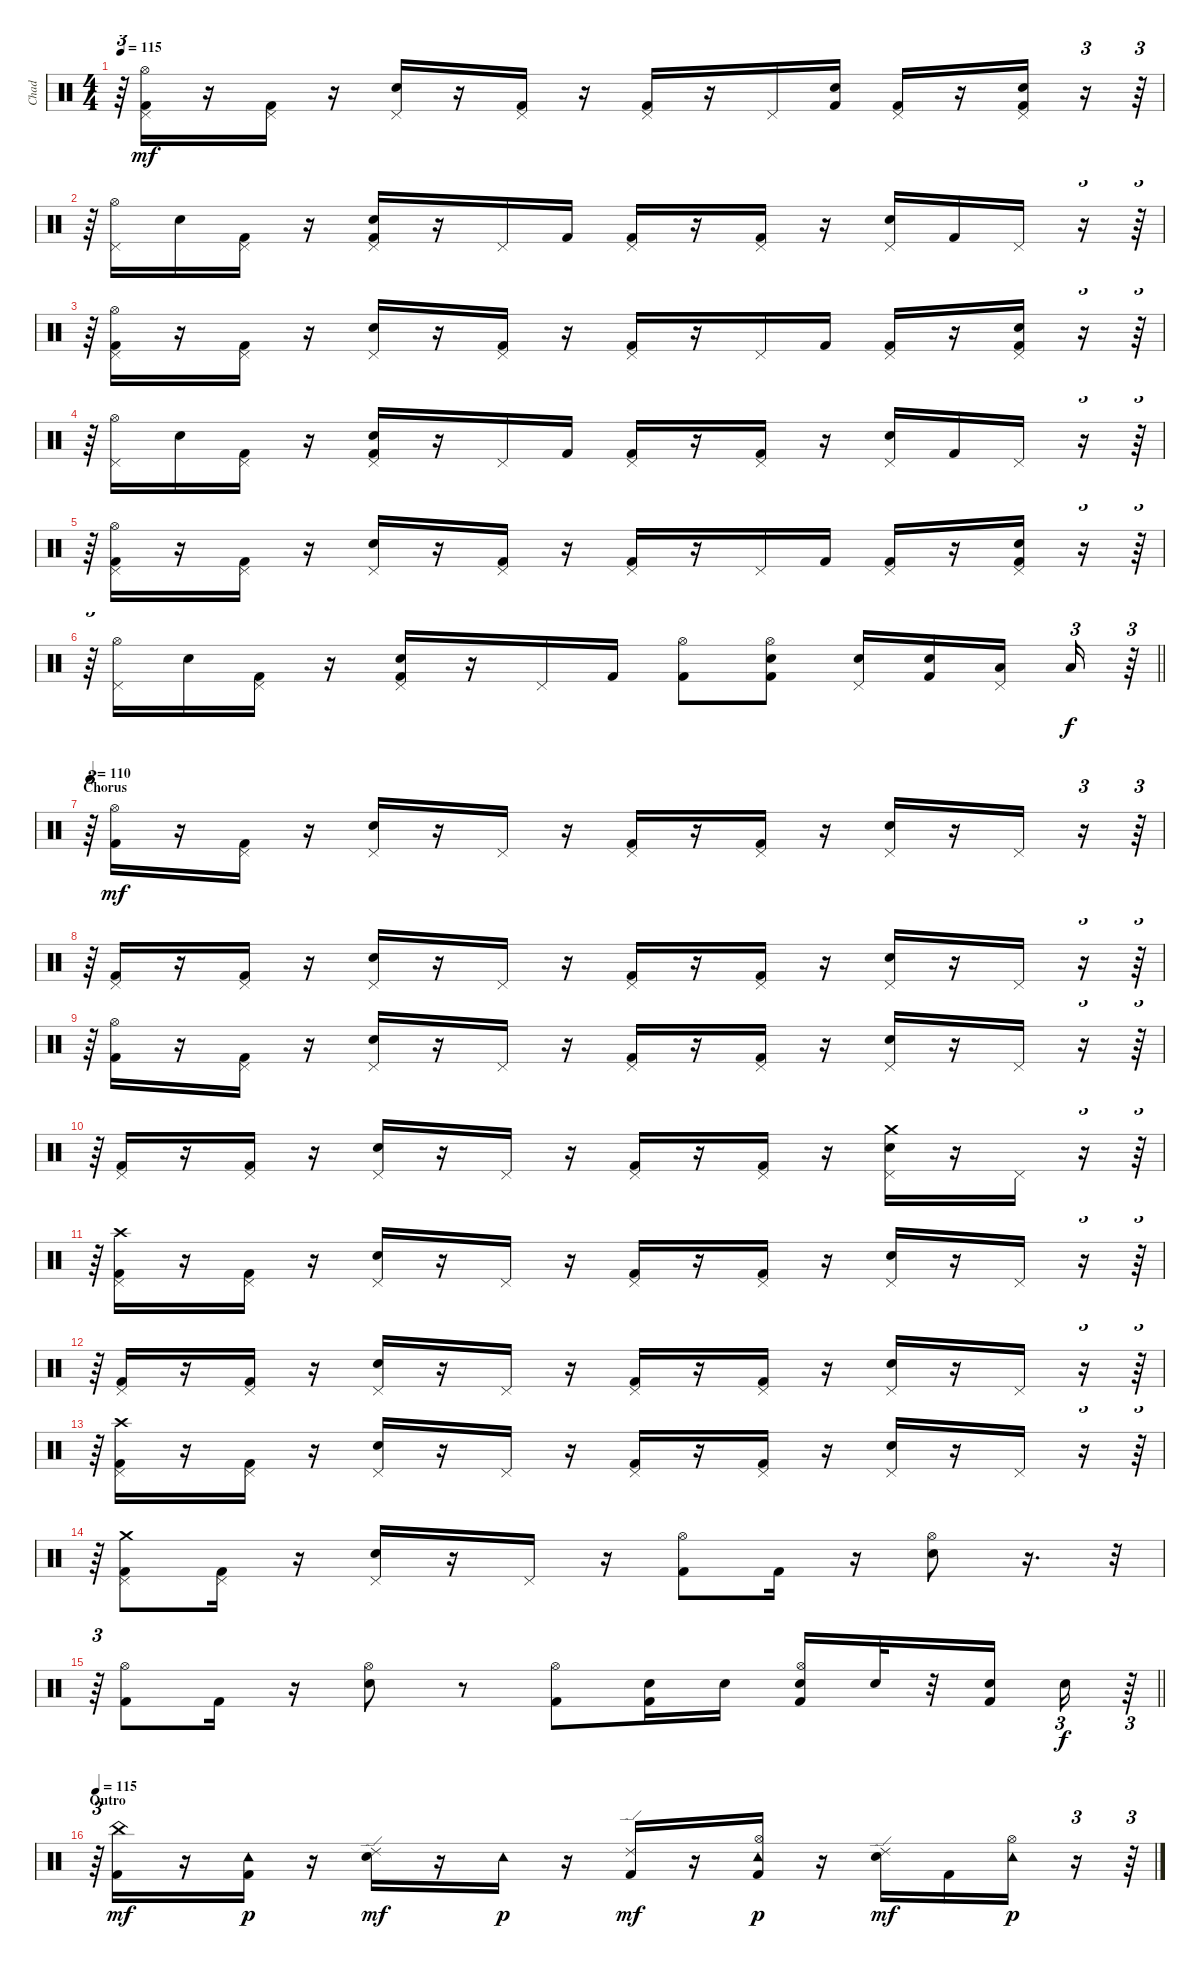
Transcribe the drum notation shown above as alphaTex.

\track ("Chad" "Chad") {instrument percussion}
\staff {score}
\articulation defaults
\ts (4 4)
\tempo 115
\clef neutral
\ks c
r.64{tu (3 2) dy mf} ("Kick (hit) 2" "Pedal Hi-Hat (hit)" "Hi-Hat (open)").16 r.16 ("Kick (hit) 2" "Pedal Hi-Hat (hit)").16 r.16 ("Snare (hit) 2" "Pedal Hi-Hat (hit)").16 r.16 ("Kick (hit) 2" "Pedal Hi-Hat (hit)").16 r.16 ("Kick (hit) 2" "Pedal Hi-Hat (hit)").16 r.16 "Pedal Hi-Hat (hit)".16 ("Kick (hit) 2" "Snare (hit) 2").16 ("Kick (hit) 2" "Pedal Hi-Hat (hit)").16 r.16 ("Kick (hit) 2" "Snare (hit) 2" "Pedal Hi-Hat (hit)").16 r.16{tu (3 2)} r.64{tu (3 2)} |
r.64{tu (3 2)} ("Pedal Hi-Hat (hit)" "Hi-Hat (open)").16 "Snare (hit) 2".16 ("Kick (hit) 2" "Pedal Hi-Hat (hit)").16 r.16 ("Kick (hit) 2" "Snare (hit) 2" "Pedal Hi-Hat (hit)").16 r.16 "Pedal Hi-Hat (hit)".16 "Kick (hit) 2".16 ("Kick (hit) 2" "Pedal Hi-Hat (hit)").16 r.16 ("Kick (hit) 2" "Pedal Hi-Hat (hit)").16 r.16 ("Snare (hit) 2" "Pedal Hi-Hat (hit)").16 "Kick (hit) 2".16 "Pedal Hi-Hat (hit)".16 r.16{tu (3 2)} r.64{tu (3 2)} |
r.64{tu (3 2)} ("Kick (hit) 2" "Pedal Hi-Hat (hit)" "Hi-Hat (open)").16 r.16 ("Kick (hit) 2" "Pedal Hi-Hat (hit)").16 r.16 ("Snare (hit) 2" "Pedal Hi-Hat (hit)").16 r.16 ("Kick (hit) 2" "Pedal Hi-Hat (hit)").16 r.16 ("Kick (hit) 2" "Pedal Hi-Hat (hit)").16 r.16 "Pedal Hi-Hat (hit)".16 "Kick (hit) 2".16 ("Kick (hit) 2" "Pedal Hi-Hat (hit)").16 r.16 ("Kick (hit) 2" "Snare (hit) 2" "Pedal Hi-Hat (hit)").16 r.16{tu (3 2)} r.64{tu (3 2)} |
r.64{tu (3 2)} ("Pedal Hi-Hat (hit)" "Hi-Hat (open)").16 "Snare (hit) 2".16 ("Kick (hit) 2" "Pedal Hi-Hat (hit)").16 r.16 ("Kick (hit) 2" "Snare (hit) 2" "Pedal Hi-Hat (hit)").16 r.16 "Pedal Hi-Hat (hit)".16 "Kick (hit) 2".16 ("Kick (hit) 2" "Pedal Hi-Hat (hit)").16 r.16 ("Kick (hit) 2" "Pedal Hi-Hat (hit)").16 r.16 ("Snare (hit) 2" "Pedal Hi-Hat (hit)").16 "Kick (hit) 2".16 "Pedal Hi-Hat (hit)".16 r.16{tu (3 2)} r.64{tu (3 2)} |
r.64{tu (3 2)} ("Kick (hit) 2" "Pedal Hi-Hat (hit)" "Hi-Hat (open)").16 r.16 ("Kick (hit) 2" "Pedal Hi-Hat (hit)").16 r.16 ("Snare (hit) 2" "Pedal Hi-Hat (hit)").16 r.16 ("Kick (hit) 2" "Pedal Hi-Hat (hit)").16 r.16 ("Kick (hit) 2" "Pedal Hi-Hat (hit)").16 r.16 "Pedal Hi-Hat (hit)".16 "Kick (hit) 2".16 ("Kick (hit) 2" "Pedal Hi-Hat (hit)").16 r.16 ("Kick (hit) 2" "Snare (hit) 2" "Pedal Hi-Hat (hit)").16 r.16{tu (3 2)} r.64{tu (3 2)} |
\barLineRight lightlight
r.64{tu (3 2)} ("Pedal Hi-Hat (hit)" "Hi-Hat (open)").16 "Snare (hit) 2".16 ("Kick (hit) 2" "Pedal Hi-Hat (hit)").16 r.16 ("Kick (hit) 2" "Snare (hit) 2" "Pedal Hi-Hat (hit)").16 r.16 "Pedal Hi-Hat (hit)".16 "Kick (hit) 2".16 ("Kick (hit) 2" "Hi-Hat (open)").8 ("Kick (hit) 2" "Snare (hit) 2" "Hi-Hat (open)").8 ("Snare (hit) 2" "Pedal Hi-Hat (hit)").16 ("Kick (hit) 2" "Snare (hit) 2").16 ("Low Floor Tom (hit)" "Pedal Hi-Hat (hit)").16{beam splitsecondary} "Low Floor Tom (hit)".16{tu (3 2) dy f} r.64{tu (3 2)} |
\section ("" "Chorus")
\tempo 110
r.64{tu (3 2)} ("Kick (hit) 2" "Hi-Hat (open)").16{dy mf} r.16 ("Kick (hit) 2" "Pedal Hi-Hat (hit)").16 r.16 ("Snare (hit) 2" "Pedal Hi-Hat (hit)").16 r.16 "Pedal Hi-Hat (hit)".16 r.16 ("Kick (hit) 2" "Pedal Hi-Hat (hit)").16 r.16 ("Kick (hit) 2" "Pedal Hi-Hat (hit)").16 r.16 ("Snare (hit) 2" "Pedal Hi-Hat (hit)").16 r.16 "Pedal Hi-Hat (hit)".16 r.16{tu (3 2)} r.64{tu (3 2)} |
r.64{tu (3 2)} ("Kick (hit) 2" "Pedal Hi-Hat (hit)").16 r.16 ("Kick (hit) 2" "Pedal Hi-Hat (hit)").16 r.16 ("Snare (hit) 2" "Pedal Hi-Hat (hit)").16 r.16 "Pedal Hi-Hat (hit)".16 r.16 ("Kick (hit) 2" "Pedal Hi-Hat (hit)").16 r.16 ("Kick (hit) 2" "Pedal Hi-Hat (hit)").16 r.16 ("Snare (hit) 2" "Pedal Hi-Hat (hit)").16 r.16 "Pedal Hi-Hat (hit)".16 r.16{tu (3 2)} r.64{tu (3 2)} |
r.64{tu (3 2)} ("Kick (hit) 2" "Hi-Hat (open)").16 r.16 ("Kick (hit) 2" "Pedal Hi-Hat (hit)").16 r.16 ("Snare (hit) 2" "Pedal Hi-Hat (hit)").16 r.16 "Pedal Hi-Hat (hit)".16 r.16 ("Kick (hit) 2" "Pedal Hi-Hat (hit)").16 r.16 ("Kick (hit) 2" "Pedal Hi-Hat (hit)").16 r.16 ("Snare (hit) 2" "Pedal Hi-Hat (hit)").16 r.16 "Pedal Hi-Hat (hit)".16 r.16{tu (3 2)} r.64{tu (3 2)} |
r.64{tu (3 2)} ("Kick (hit) 2" "Pedal Hi-Hat (hit)").16 r.16 ("Kick (hit) 2" "Pedal Hi-Hat (hit)").16 r.16 ("Snare (hit) 2" "Pedal Hi-Hat (hit)").16 r.16 "Pedal Hi-Hat (hit)".16 r.16 ("Kick (hit) 2" "Pedal Hi-Hat (hit)").16 r.16 ("Kick (hit) 2" "Pedal Hi-Hat (hit)").16 r.16 ("Snare (hit) 2" "Pedal Hi-Hat (hit)" "Crash medium (hit)").16 r.16 "Pedal Hi-Hat (hit)".16 r.16{tu (3 2)} r.64{tu (3 2)} |
r.64{tu (3 2)} ("Kick (hit) 2" "Pedal Hi-Hat (hit)" "Crash high (hit)").16 r.16 ("Kick (hit) 2" "Pedal Hi-Hat (hit)").16 r.16 ("Snare (hit) 2" "Pedal Hi-Hat (hit)").16 r.16 "Pedal Hi-Hat (hit)".16 r.16 ("Kick (hit) 2" "Pedal Hi-Hat (hit)").16 r.16 ("Kick (hit) 2" "Pedal Hi-Hat (hit)").16 r.16 ("Snare (hit) 2" "Pedal Hi-Hat (hit)").16 r.16 "Pedal Hi-Hat (hit)".16 r.16{tu (3 2)} r.64{tu (3 2)} |
r.64{tu (3 2)} ("Kick (hit) 2" "Pedal Hi-Hat (hit)").16 r.16 ("Kick (hit) 2" "Pedal Hi-Hat (hit)").16 r.16 ("Snare (hit) 2" "Pedal Hi-Hat (hit)").16 r.16 "Pedal Hi-Hat (hit)".16 r.16 ("Kick (hit) 2" "Pedal Hi-Hat (hit)").16 r.16 ("Kick (hit) 2" "Pedal Hi-Hat (hit)").16 r.16 ("Snare (hit) 2" "Pedal Hi-Hat (hit)").16 r.16 "Pedal Hi-Hat (hit)".16 r.16{tu (3 2)} r.64{tu (3 2)} |
r.64{tu (3 2)} ("Kick (hit) 2" "Pedal Hi-Hat (hit)" "Crash high (hit)").16 r.16 ("Kick (hit) 2" "Pedal Hi-Hat (hit)").16 r.16 ("Snare (hit) 2" "Pedal Hi-Hat (hit)").16 r.16 "Pedal Hi-Hat (hit)".16 r.16 ("Kick (hit) 2" "Pedal Hi-Hat (hit)").16 r.16 ("Kick (hit) 2" "Pedal Hi-Hat (hit)").16 r.16 ("Snare (hit) 2" "Pedal Hi-Hat (hit)").16 r.16 "Pedal Hi-Hat (hit)".16 r.16{tu (3 2)} r.64{tu (3 2)} |
r.64{tu (3 2)} ("Kick (hit) 2" "Pedal Hi-Hat (hit)" "Crash medium (hit)").8 ("Kick (hit) 2" "Pedal Hi-Hat (hit)").16 r.16 ("Snare (hit) 2" "Pedal Hi-Hat (hit)").16 r.16 "Pedal Hi-Hat (hit)".16 r.16 ("Kick (hit) 2" "Hi-Hat (open)").8 "Kick (hit) 2".16 r.16 ("Snare (hit) 2" "Hi-Hat (open)").8 r.16{d} r.32{tu (3 2)} |
\barLineRight lightlight
r.64{tu (3 2)} ("Hi-Hat (open)" "Kick (hit) 2").8 "Kick (hit) 2".16 r.16 ("Snare (hit) 2" "Hi-Hat (open)").8 r.8 ("Kick (hit) 2" "Hi-Hat (open)").8 ("Kick (hit) 2" "Snare (hit) 2").16 "Snare (hit) 2".16 ("Kick (hit) 2" "Snare (hit) 2" "Hi-Hat (open)").16 "Snare (hit) 2".32 r.32 ("Kick (hit) 2" "Snare (hit) 2").16 "Snare (hit) 2".16{tu (3 2) dy f} r.64{tu (3 2)} |
\section ("" "Outro")
\tempo 115
r.64{tu (3 2)} ("Kick (hit) 2" "China (hit)").16{dy mf} r.16 ("Kick (hit) 2" "Tambourine (hit)").16{dy p} r.16 ("Snare (hit) 2" "Ride (edge) 2").16{dy mf} r.16 "Tambourine (hit)".16{dy p} r.16 ("Kick (hit) 2" "Ride (edge) 2").16{dy mf} r.16 ("Kick (hit) 2" "Hi-Hat (open)" "Tambourine (hit)").16{dy p} r.16 ("Snare (hit) 2" "Ride (edge) 2").16{dy mf} "Kick (hit) 2".16 ("Hi-Hat (open)" "Tambourine (hit)").16{dy p} r.16{tu (3 2)} r.64{tu (3 2)}
